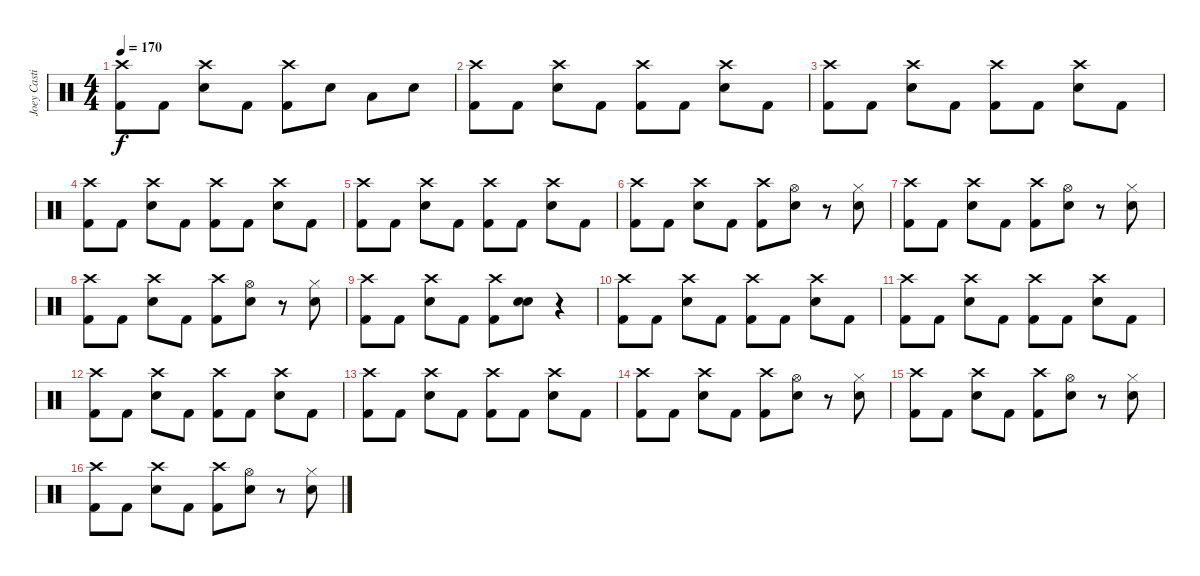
\track ("Joey Castillo - drums" "Joey Casti") {instrument percussion}
\staff {score}
\articulation defaults
\ts (4 4)
\tempo 170
\clef neutral
\ks c
("Kick (hit) 2" "Crash high (hit)").8{dy f} "Kick (hit) 2".8 ("Electric Snare (hit)" "Crash high (hit)").8 "Kick (hit) 2".8 ("Kick (hit) 2" "Crash high (hit)").8 "Electric Snare (hit)".8 "Low Tom (hit)".8 "Electric Snare (hit)".8 |
\section ("" "")
("Kick (hit) 2" "Crash high (hit)").8 "Kick (hit) 2".8 ("Electric Snare (hit)" "Crash high (hit)").8 "Kick (hit) 2".8 ("Kick (hit) 2" "Crash high (hit)").8 "Kick (hit) 2".8 ("Electric Snare (hit)" "Crash high (hit)").8 "Kick (hit) 2".8 |
("Kick (hit) 2" "Crash high (hit)").8 "Kick (hit) 2".8 ("Electric Snare (hit)" "Crash high (hit)").8 "Kick (hit) 2".8 ("Kick (hit) 2" "Crash high (hit)").8 "Kick (hit) 2".8 ("Electric Snare (hit)" "Crash high (hit)").8 "Kick (hit) 2".8 |
("Kick (hit) 2" "Crash high (hit)").8 "Kick (hit) 2".8 ("Electric Snare (hit)" "Crash high (hit)").8 "Kick (hit) 2".8 ("Kick (hit) 2" "Crash high (hit)").8 "Kick (hit) 2".8 ("Electric Snare (hit)" "Crash high (hit)").8 "Kick (hit) 2".8 |
("Kick (hit) 2" "Crash high (hit)").8 "Kick (hit) 2".8 ("Electric Snare (hit)" "Crash high (hit)").8 "Kick (hit) 2".8 ("Kick (hit) 2" "Crash high (hit)").8 "Kick (hit) 2".8 ("Electric Snare (hit)" "Crash high (hit)").8 "Kick (hit) 2".8 |
("Kick (hit) 2" "Crash high (hit)").8 "Kick (hit) 2".8 ("Electric Snare (hit)" "Crash high (hit)").8 "Kick (hit) 2".8 ("Kick (hit) 2" "Crash high (hit)").8 ("Electric Snare (hit)" "Hi-Hat (open)").8 r.8 ("Electric Snare (hit)" "Hi-Hat (closed)").8 |
("Kick (hit) 2" "Crash high (hit)").8 "Kick (hit) 2".8 ("Electric Snare (hit)" "Crash high (hit)").8 "Kick (hit) 2".8 ("Kick (hit) 2" "Crash high (hit)").8 ("Electric Snare (hit)" "Hi-Hat (open)").8 r.8 ("Electric Snare (hit)" "Hi-Hat (closed)").8 |
("Kick (hit) 2" "Crash high (hit)").8 "Kick (hit) 2".8 ("Electric Snare (hit)" "Crash high (hit)").8 "Kick (hit) 2".8 ("Kick (hit) 2" "Crash high (hit)").8 ("Electric Snare (hit)" "Hi-Hat (open)").8 r.8 ("Electric Snare (hit)" "Hi-Hat (closed)").8 |
("Kick (hit) 2" "Crash high (hit)").8 "Kick (hit) 2".8 ("Electric Snare (hit)" "Crash high (hit)").8 "Kick (hit) 2".8 ("Kick (hit) 2" "Crash high (hit)").8 ("Electric Snare (hit)" "Snare (hit) 2").8 r.4 |
\section ("" "")
("Kick (hit) 2" "Crash high (hit)").8 "Kick (hit) 2".8 ("Electric Snare (hit)" "Crash high (hit)").8 "Kick (hit) 2".8 ("Kick (hit) 2" "Crash high (hit)").8 "Kick (hit) 2".8 ("Electric Snare (hit)" "Crash high (hit)").8 "Kick (hit) 2".8 |
("Kick (hit) 2" "Crash high (hit)").8 "Kick (hit) 2".8 ("Electric Snare (hit)" "Crash high (hit)").8 "Kick (hit) 2".8 ("Kick (hit) 2" "Crash high (hit)").8 "Kick (hit) 2".8 ("Electric Snare (hit)" "Crash high (hit)").8 "Kick (hit) 2".8 |
("Kick (hit) 2" "Crash high (hit)").8 "Kick (hit) 2".8 ("Electric Snare (hit)" "Crash high (hit)").8 "Kick (hit) 2".8 ("Kick (hit) 2" "Crash high (hit)").8 "Kick (hit) 2".8 ("Electric Snare (hit)" "Crash high (hit)").8 "Kick (hit) 2".8 |
("Kick (hit) 2" "Crash high (hit)").8 "Kick (hit) 2".8 ("Electric Snare (hit)" "Crash high (hit)").8 "Kick (hit) 2".8 ("Kick (hit) 2" "Crash high (hit)").8 "Kick (hit) 2".8 ("Electric Snare (hit)" "Crash high (hit)").8 "Kick (hit) 2".8 |
("Kick (hit) 2" "Crash high (hit)").8 "Kick (hit) 2".8 ("Electric Snare (hit)" "Crash high (hit)").8 "Kick (hit) 2".8 ("Kick (hit) 2" "Crash high (hit)").8 ("Electric Snare (hit)" "Hi-Hat (open)").8 r.8 ("Electric Snare (hit)" "Hi-Hat (closed)").8 |
("Kick (hit) 2" "Crash high (hit)").8 "Kick (hit) 2".8 ("Electric Snare (hit)" "Crash high (hit)").8 "Kick (hit) 2".8 ("Kick (hit) 2" "Crash high (hit)").8 ("Electric Snare (hit)" "Hi-Hat (open)").8 r.8 ("Electric Snare (hit)" "Hi-Hat (closed)").8 |
("Kick (hit) 2" "Crash high (hit)").8 "Kick (hit) 2".8 ("Electric Snare (hit)" "Crash high (hit)").8 "Kick (hit) 2".8 ("Kick (hit) 2" "Crash high (hit)").8 ("Electric Snare (hit)" "Hi-Hat (open)").8 r.8 ("Electric Snare (hit)" "Hi-Hat (closed)").8
